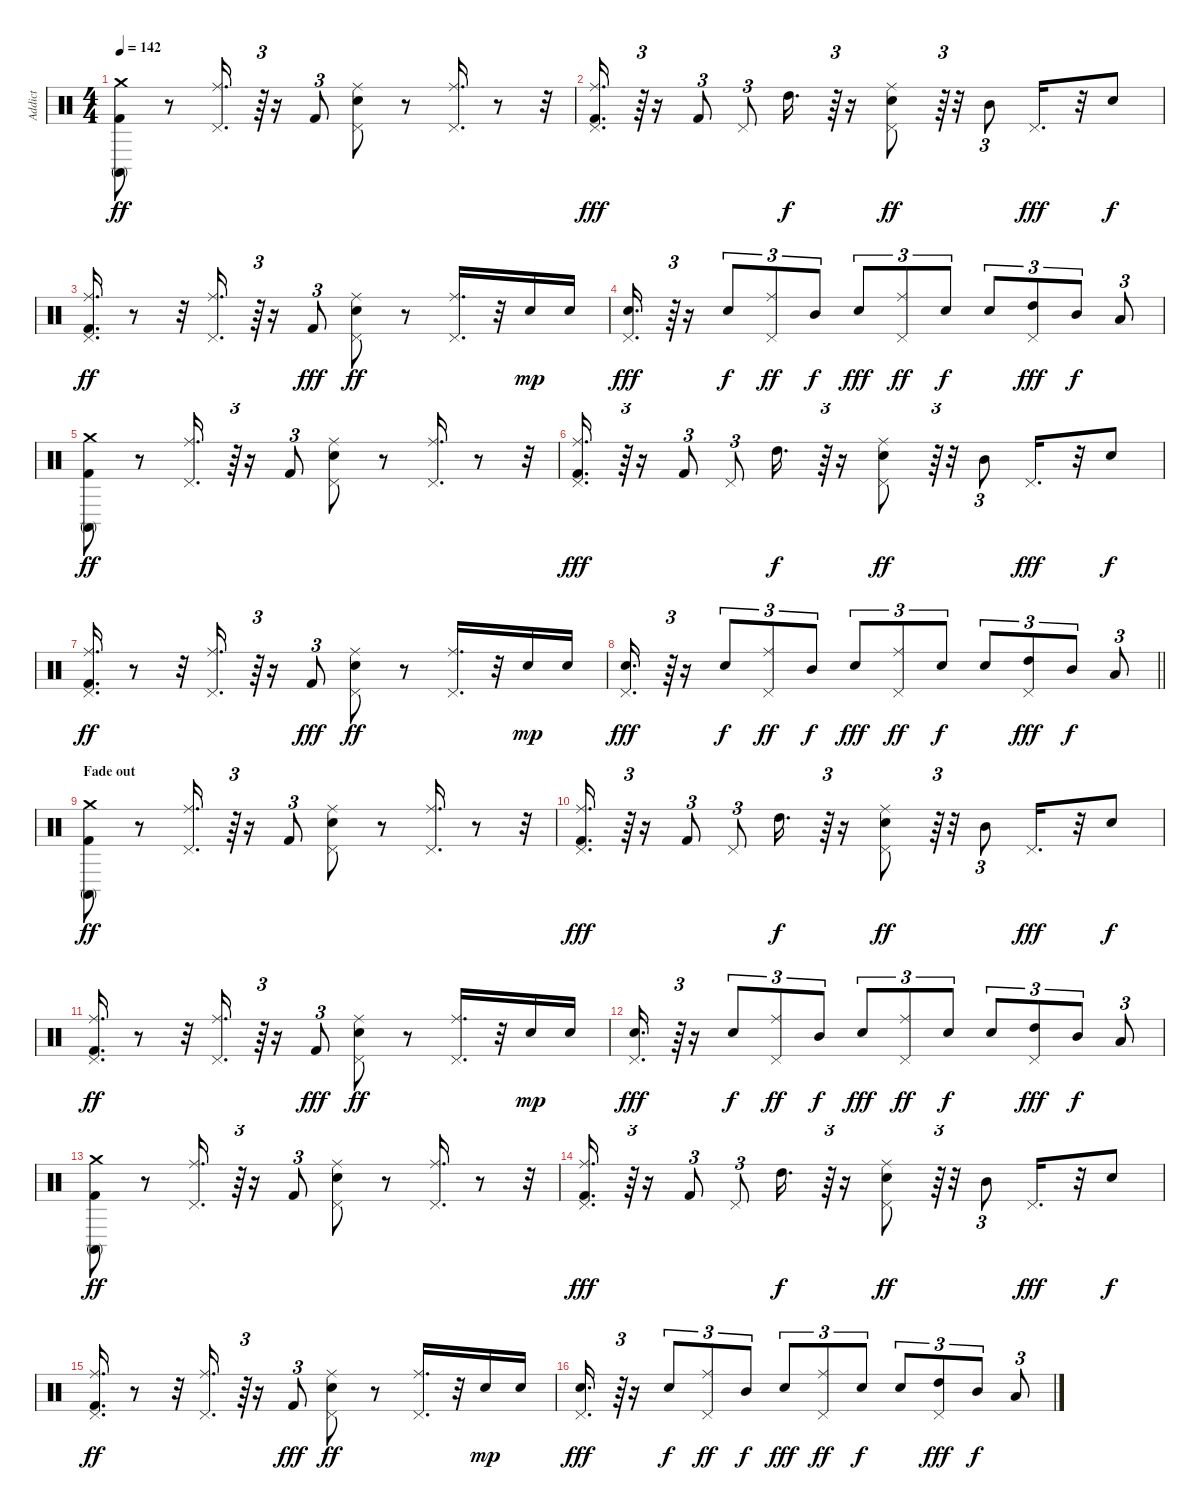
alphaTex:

\track ("Addict" "Addict") {instrument percussion}
\staff {score}
\articulation defaults
\ts (4 4)
\tempo 142
\clef neutral
\ks c
("Kick (hit) 2" "Conga high (mute)" "Crash medium (hit)").8{dy ff} r.8 ("Ride (middle)" "Pedal Hi-Hat (hit)").16{d} r.64{tu (3 2)} r.16 "Kick (hit) 2".8{tu (3 2)} ("Snare (hit) 2" "Pedal Hi-Hat (hit)" "Ride (middle)").8 r.8 ("Pedal Hi-Hat (hit)" "Ride (middle)").16{d} r.8 r.32 |
("Kick (hit) 2" "Pedal Hi-Hat (hit)" "Ride (middle)").16{d dy fff} r.64{tu (3 2)} r.16 "Kick (hit) 2".8{tu (3 2)} "Pedal Hi-Hat (hit)".8{tu (3 2)} "High Tom (hit)".16{d dy f} r.64{tu (3 2)} r.16 ("Snare (hit) 2" "Pedal Hi-Hat (hit)" "Ride (middle)").8{dy ff} r.64{tu (3 2)} r.32 "Mid Tom (hit)".8{tu (3 2)} "Pedal Hi-Hat (hit)".16{d dy fff} r.32 "Snare (hit) 2".8{dy f} |
("Kick (hit) 2" "Pedal Hi-Hat (hit)" "Ride (middle)").16{d dy ff} r.8 r.32 ("Pedal Hi-Hat (hit)" "Ride (middle)").16{d} r.64{tu (3 2)} r.16 "Kick (hit) 2".8{tu (3 2) dy fff} ("Snare (hit) 2" "Pedal Hi-Hat (hit)" "Ride (middle)").8{dy ff} r.8 ("Pedal Hi-Hat (hit)" "Ride (middle)").16{d} r.32 "Snare (hit) 2".16{dy mp} "Snare (hit) 2".16 |
("Snare (hit) 2" "Pedal Hi-Hat (hit)").16{d dy fff} r.64{tu (3 2)} r.16 "Snare (hit) 2".8{tu (3 2) dy f} ("Pedal Hi-Hat (hit)" "Ride (middle)").8{tu (3 2) dy ff} "Mid Tom (hit)".8{tu (3 2) dy f} "Snare (hit) 2".8{tu (3 2) dy fff} ("Pedal Hi-Hat (hit)" "Ride (middle)").8{tu (3 2) dy ff} "Snare (hit) 2".8{tu (3 2) dy f} "Snare (hit) 2".8{tu (3 2)} ("Pedal Hi-Hat (hit)" "High Tom (hit)").8{tu (3 2) dy fff} "Mid Tom (hit)".8{tu (3 2) dy f} "Low Tom (hit)".8{tu (3 2)} |
("Kick (hit) 2" "Conga high (mute)" "Crash medium (hit)").8{dy ff} r.8 ("Ride (middle)" "Pedal Hi-Hat (hit)").16{d} r.64{tu (3 2)} r.16 "Kick (hit) 2".8{tu (3 2)} ("Snare (hit) 2" "Pedal Hi-Hat (hit)" "Ride (middle)").8 r.8 ("Pedal Hi-Hat (hit)" "Ride (middle)").16{d} r.8 r.32 |
("Kick (hit) 2" "Pedal Hi-Hat (hit)" "Ride (middle)").16{d dy fff} r.64{tu (3 2)} r.16 "Kick (hit) 2".8{tu (3 2)} "Pedal Hi-Hat (hit)".8{tu (3 2)} "High Tom (hit)".16{d dy f} r.64{tu (3 2)} r.16 ("Snare (hit) 2" "Pedal Hi-Hat (hit)" "Ride (middle)").8{dy ff} r.64{tu (3 2)} r.32 "Mid Tom (hit)".8{tu (3 2)} "Pedal Hi-Hat (hit)".16{d dy fff} r.32 "Snare (hit) 2".8{dy f} |
("Kick (hit) 2" "Pedal Hi-Hat (hit)" "Ride (middle)").16{d dy ff} r.8 r.32 ("Pedal Hi-Hat (hit)" "Ride (middle)").16{d} r.64{tu (3 2)} r.16 "Kick (hit) 2".8{tu (3 2) dy fff} ("Snare (hit) 2" "Pedal Hi-Hat (hit)" "Ride (middle)").8{dy ff} r.8 ("Pedal Hi-Hat (hit)" "Ride (middle)").16{d} r.32 "Snare (hit) 2".16{dy mp} "Snare (hit) 2".16 |
\barLineRight lightlight
("Snare (hit) 2" "Pedal Hi-Hat (hit)").16{d dy fff} r.64{tu (3 2)} r.16 "Snare (hit) 2".8{tu (3 2) dy f} ("Pedal Hi-Hat (hit)" "Ride (middle)").8{tu (3 2) dy ff} "Mid Tom (hit)".8{tu (3 2) dy f} "Snare (hit) 2".8{tu (3 2) dy fff} ("Pedal Hi-Hat (hit)" "Ride (middle)").8{tu (3 2) dy ff} "Snare (hit) 2".8{tu (3 2) dy f} "Snare (hit) 2".8{tu (3 2)} ("Pedal Hi-Hat (hit)" "High Tom (hit)").8{tu (3 2) dy fff} "Mid Tom (hit)".8{tu (3 2) dy f} "Low Tom (hit)".8{tu (3 2)} |
\section ("" "Fade out")
("Kick (hit) 2" "Conga high (mute)" "Crash medium (hit)").8{dy ff} r.8 ("Ride (middle)" "Pedal Hi-Hat (hit)").16{d} r.64{tu (3 2)} r.16 "Kick (hit) 2".8{tu (3 2)} ("Snare (hit) 2" "Pedal Hi-Hat (hit)" "Ride (middle)").8 r.8 ("Pedal Hi-Hat (hit)" "Ride (middle)").16{d} r.8 r.32 |
("Kick (hit) 2" "Pedal Hi-Hat (hit)" "Ride (middle)").16{d dy fff} r.64{tu (3 2)} r.16 "Kick (hit) 2".8{tu (3 2)} "Pedal Hi-Hat (hit)".8{tu (3 2)} "High Tom (hit)".16{d dy f} r.64{tu (3 2)} r.16 ("Snare (hit) 2" "Pedal Hi-Hat (hit)" "Ride (middle)").8{dy ff} r.64{tu (3 2)} r.32 "Mid Tom (hit)".8{tu (3 2)} "Pedal Hi-Hat (hit)".16{d dy fff} r.32 "Snare (hit) 2".8{dy f} |
("Kick (hit) 2" "Pedal Hi-Hat (hit)" "Ride (middle)").16{d dy ff} r.8 r.32 ("Pedal Hi-Hat (hit)" "Ride (middle)").16{d} r.64{tu (3 2)} r.16 "Kick (hit) 2".8{tu (3 2) dy fff} ("Snare (hit) 2" "Pedal Hi-Hat (hit)" "Ride (middle)").8{dy ff} r.8 ("Pedal Hi-Hat (hit)" "Ride (middle)").16{d} r.32 "Snare (hit) 2".16{dy mp} "Snare (hit) 2".16 |
("Snare (hit) 2" "Pedal Hi-Hat (hit)").16{d dy fff} r.64{tu (3 2)} r.16 "Snare (hit) 2".8{tu (3 2) dy f} ("Pedal Hi-Hat (hit)" "Ride (middle)").8{tu (3 2) dy ff} "Mid Tom (hit)".8{tu (3 2) dy f} "Snare (hit) 2".8{tu (3 2) dy fff} ("Pedal Hi-Hat (hit)" "Ride (middle)").8{tu (3 2) dy ff} "Snare (hit) 2".8{tu (3 2) dy f} "Snare (hit) 2".8{tu (3 2)} ("Pedal Hi-Hat (hit)" "High Tom (hit)").8{tu (3 2) dy fff} "Mid Tom (hit)".8{tu (3 2) dy f} "Low Tom (hit)".8{tu (3 2)} |
("Kick (hit) 2" "Conga high (mute)" "Crash medium (hit)").8{dy ff} r.8 ("Ride (middle)" "Pedal Hi-Hat (hit)").16{d} r.64{tu (3 2)} r.16 "Kick (hit) 2".8{tu (3 2)} ("Snare (hit) 2" "Pedal Hi-Hat (hit)" "Ride (middle)").8 r.8 ("Pedal Hi-Hat (hit)" "Ride (middle)").16{d} r.8 r.32 |
("Kick (hit) 2" "Pedal Hi-Hat (hit)" "Ride (middle)").16{d dy fff} r.64{tu (3 2)} r.16 "Kick (hit) 2".8{tu (3 2)} "Pedal Hi-Hat (hit)".8{tu (3 2)} "High Tom (hit)".16{d dy f} r.64{tu (3 2)} r.16 ("Snare (hit) 2" "Pedal Hi-Hat (hit)" "Ride (middle)").8{dy ff} r.64{tu (3 2)} r.32 "Mid Tom (hit)".8{tu (3 2)} "Pedal Hi-Hat (hit)".16{d dy fff} r.32 "Snare (hit) 2".8{dy f} |
("Kick (hit) 2" "Pedal Hi-Hat (hit)" "Ride (middle)").16{d dy ff} r.8 r.32 ("Pedal Hi-Hat (hit)" "Ride (middle)").16{d} r.64{tu (3 2)} r.16 "Kick (hit) 2".8{tu (3 2) dy fff} ("Snare (hit) 2" "Pedal Hi-Hat (hit)" "Ride (middle)").8{dy ff} r.8 ("Pedal Hi-Hat (hit)" "Ride (middle)").16{d} r.32 "Snare (hit) 2".16{dy mp} "Snare (hit) 2".16 |
("Snare (hit) 2" "Pedal Hi-Hat (hit)").16{d dy fff} r.64{tu (3 2)} r.16 "Snare (hit) 2".8{tu (3 2) dy f} ("Pedal Hi-Hat (hit)" "Ride (middle)").8{tu (3 2) dy ff} "Mid Tom (hit)".8{tu (3 2) dy f} "Snare (hit) 2".8{tu (3 2) dy fff} ("Pedal Hi-Hat (hit)" "Ride (middle)").8{tu (3 2) dy ff} "Snare (hit) 2".8{tu (3 2) dy f} "Snare (hit) 2".8{tu (3 2)} ("Pedal Hi-Hat (hit)" "High Tom (hit)").8{tu (3 2) dy fff} "Mid Tom (hit)".8{tu (3 2) dy f} "Low Tom (hit)".8{tu (3 2)}
